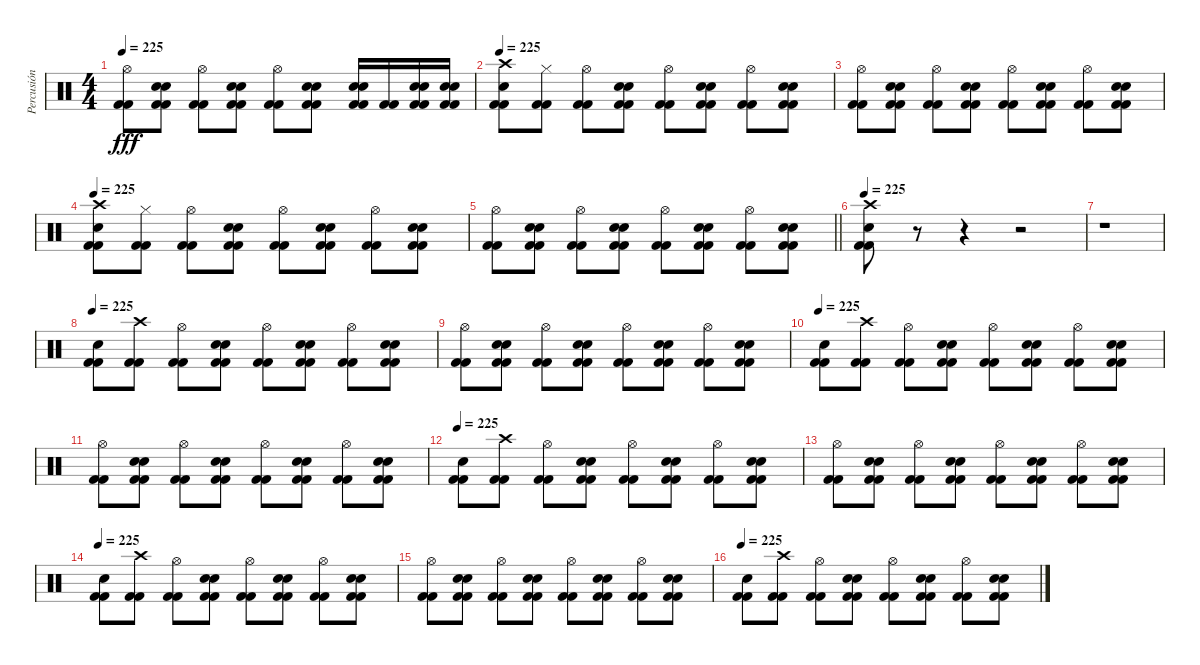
\track ("Percusión" "Percusión") {instrument percussion}
\staff {score}
\articulation defaults
\ts (4 4)
\tempo 225
\clef neutral
\ks c
("Hi-Hat (open)" "Kick (hit) 2" "Kick (hit) 2").8{dy fff} ("Electric Snare (hit)" "Snare (hit) 2" "Kick (hit) 2" "Kick (hit) 2").8 ("Hi-Hat (open)" "Kick (hit) 2" "Kick (hit) 2").8 ("Electric Snare (hit)" "Snare (hit) 2" "Kick (hit) 2" "Kick (hit) 2").8 ("Hi-Hat (open)" "Kick (hit) 2" "Kick (hit) 2").8 ("Electric Snare (hit)" "Snare (hit) 2" "Kick (hit) 2" "Kick (hit) 2").8 ("Electric Snare (hit)" "Snare (hit) 2" "Kick (hit) 2" "Kick (hit) 2").16 ("Kick (hit) 2" "Kick (hit) 2").16 ("Electric Snare (hit)" "Snare (hit) 2" "Kick (hit) 2" "Kick (hit) 2").16 ("Electric Snare (hit)" "Snare (hit) 2" "Kick (hit) 2" "Kick (hit) 2").16 |
\tempo 225
("Crash high (hit)" "Snare (hit) 2" "Kick (hit) 2" "Kick (hit) 2").8 ("Hi-Hat (closed)" "Kick (hit) 2" "Kick (hit) 2").8 ("Hi-Hat (open)" "Kick (hit) 2" "Kick (hit) 2").8 ("Electric Snare (hit)" "Snare (hit) 2" "Kick (hit) 2" "Kick (hit) 2").8 ("Hi-Hat (open)" "Kick (hit) 2" "Kick (hit) 2").8 ("Electric Snare (hit)" "Snare (hit) 2" "Kick (hit) 2" "Kick (hit) 2").8 ("Hi-Hat (open)" "Kick (hit) 2" "Kick (hit) 2").8 ("Electric Snare (hit)" "Snare (hit) 2" "Kick (hit) 2" "Kick (hit) 2").8 |
("Hi-Hat (open)" "Kick (hit) 2" "Kick (hit) 2").8 ("Electric Snare (hit)" "Snare (hit) 2" "Kick (hit) 2" "Kick (hit) 2").8 ("Hi-Hat (open)" "Kick (hit) 2" "Kick (hit) 2").8 ("Electric Snare (hit)" "Snare (hit) 2" "Kick (hit) 2" "Kick (hit) 2").8 ("Hi-Hat (open)" "Kick (hit) 2" "Kick (hit) 2").8 ("Electric Snare (hit)" "Snare (hit) 2" "Kick (hit) 2" "Kick (hit) 2").8 ("Hi-Hat (open)" "Kick (hit) 2" "Kick (hit) 2").8 ("Electric Snare (hit)" "Snare (hit) 2" "Kick (hit) 2" "Kick (hit) 2").8 |
\tempo 225
("Crash high (hit)" "Snare (hit) 2" "Kick (hit) 2" "Kick (hit) 2").8 ("Hi-Hat (closed)" "Kick (hit) 2" "Kick (hit) 2").8 ("Hi-Hat (open)" "Kick (hit) 2" "Kick (hit) 2").8 ("Electric Snare (hit)" "Snare (hit) 2" "Kick (hit) 2" "Kick (hit) 2").8 ("Hi-Hat (open)" "Kick (hit) 2" "Kick (hit) 2").8 ("Electric Snare (hit)" "Snare (hit) 2" "Kick (hit) 2" "Kick (hit) 2").8 ("Hi-Hat (open)" "Kick (hit) 2" "Kick (hit) 2").8 ("Electric Snare (hit)" "Snare (hit) 2" "Kick (hit) 2" "Kick (hit) 2").8 |
\barLineRight lightlight
("Hi-Hat (open)" "Kick (hit) 2" "Kick (hit) 2").8 ("Electric Snare (hit)" "Snare (hit) 2" "Kick (hit) 2" "Kick (hit) 2").8 ("Hi-Hat (open)" "Kick (hit) 2" "Kick (hit) 2").8 ("Electric Snare (hit)" "Snare (hit) 2" "Kick (hit) 2" "Kick (hit) 2").8 ("Hi-Hat (open)" "Kick (hit) 2" "Kick (hit) 2").8 ("Electric Snare (hit)" "Snare (hit) 2" "Kick (hit) 2" "Kick (hit) 2").8 ("Hi-Hat (open)" "Kick (hit) 2" "Kick (hit) 2").8 ("Electric Snare (hit)" "Snare (hit) 2" "Kick (hit) 2" "Kick (hit) 2").8 |
\tempo 225
("Crash high (hit)" "Snare (hit) 2" "Kick (hit) 2" "Kick (hit) 2").8 r.8 r.4 r.2 |
r.1 |
\tempo 225
("Snare (hit) 2" "Kick (hit) 2" "Kick (hit) 2").8 ("Crash high (hit)" "Kick (hit) 2" "Kick (hit) 2").8 ("Hi-Hat (open)" "Kick (hit) 2" "Kick (hit) 2").8 ("Electric Snare (hit)" "Snare (hit) 2" "Kick (hit) 2" "Kick (hit) 2").8 ("Hi-Hat (open)" "Kick (hit) 2" "Kick (hit) 2").8 ("Electric Snare (hit)" "Snare (hit) 2" "Kick (hit) 2" "Kick (hit) 2").8 ("Hi-Hat (open)" "Kick (hit) 2" "Kick (hit) 2").8 ("Electric Snare (hit)" "Snare (hit) 2" "Kick (hit) 2" "Kick (hit) 2").8 |
("Hi-Hat (open)" "Kick (hit) 2" "Kick (hit) 2").8 ("Electric Snare (hit)" "Snare (hit) 2" "Kick (hit) 2" "Kick (hit) 2").8 ("Hi-Hat (open)" "Kick (hit) 2" "Kick (hit) 2").8 ("Electric Snare (hit)" "Snare (hit) 2" "Kick (hit) 2" "Kick (hit) 2").8 ("Hi-Hat (open)" "Kick (hit) 2" "Kick (hit) 2").8 ("Electric Snare (hit)" "Snare (hit) 2" "Kick (hit) 2" "Kick (hit) 2").8 ("Hi-Hat (open)" "Kick (hit) 2" "Kick (hit) 2").8 ("Electric Snare (hit)" "Snare (hit) 2" "Kick (hit) 2" "Kick (hit) 2").8 |
\tempo 225
("Snare (hit) 2" "Kick (hit) 2" "Kick (hit) 2").8 ("Crash high (hit)" "Kick (hit) 2" "Kick (hit) 2").8 ("Hi-Hat (open)" "Kick (hit) 2" "Kick (hit) 2").8 ("Electric Snare (hit)" "Snare (hit) 2" "Kick (hit) 2" "Kick (hit) 2").8 ("Hi-Hat (open)" "Kick (hit) 2" "Kick (hit) 2").8 ("Electric Snare (hit)" "Snare (hit) 2" "Kick (hit) 2" "Kick (hit) 2").8 ("Hi-Hat (open)" "Kick (hit) 2" "Kick (hit) 2").8 ("Electric Snare (hit)" "Snare (hit) 2" "Kick (hit) 2" "Kick (hit) 2").8 |
("Hi-Hat (open)" "Kick (hit) 2" "Kick (hit) 2").8 ("Electric Snare (hit)" "Snare (hit) 2" "Kick (hit) 2" "Kick (hit) 2").8 ("Hi-Hat (open)" "Kick (hit) 2" "Kick (hit) 2").8 ("Electric Snare (hit)" "Snare (hit) 2" "Kick (hit) 2" "Kick (hit) 2").8 ("Hi-Hat (open)" "Kick (hit) 2" "Kick (hit) 2").8 ("Electric Snare (hit)" "Snare (hit) 2" "Kick (hit) 2" "Kick (hit) 2").8 ("Hi-Hat (open)" "Kick (hit) 2" "Kick (hit) 2").8 ("Electric Snare (hit)" "Snare (hit) 2" "Kick (hit) 2" "Kick (hit) 2").8 |
\tempo 225
("Snare (hit) 2" "Kick (hit) 2" "Kick (hit) 2").8 ("Crash high (hit)" "Kick (hit) 2" "Kick (hit) 2").8 ("Hi-Hat (open)" "Kick (hit) 2" "Kick (hit) 2").8 ("Electric Snare (hit)" "Snare (hit) 2" "Kick (hit) 2" "Kick (hit) 2").8 ("Hi-Hat (open)" "Kick (hit) 2" "Kick (hit) 2").8 ("Electric Snare (hit)" "Snare (hit) 2" "Kick (hit) 2" "Kick (hit) 2").8 ("Hi-Hat (open)" "Kick (hit) 2" "Kick (hit) 2").8 ("Electric Snare (hit)" "Snare (hit) 2" "Kick (hit) 2" "Kick (hit) 2").8 |
("Hi-Hat (open)" "Kick (hit) 2" "Kick (hit) 2").8 ("Electric Snare (hit)" "Snare (hit) 2" "Kick (hit) 2" "Kick (hit) 2").8 ("Hi-Hat (open)" "Kick (hit) 2" "Kick (hit) 2").8 ("Electric Snare (hit)" "Snare (hit) 2" "Kick (hit) 2" "Kick (hit) 2").8 ("Hi-Hat (open)" "Kick (hit) 2" "Kick (hit) 2").8 ("Electric Snare (hit)" "Snare (hit) 2" "Kick (hit) 2" "Kick (hit) 2").8 ("Hi-Hat (open)" "Kick (hit) 2" "Kick (hit) 2").8 ("Electric Snare (hit)" "Snare (hit) 2" "Kick (hit) 2" "Kick (hit) 2").8 |
\tempo 225
("Snare (hit) 2" "Kick (hit) 2" "Kick (hit) 2").8 ("Crash high (hit)" "Kick (hit) 2" "Kick (hit) 2").8 ("Hi-Hat (open)" "Kick (hit) 2" "Kick (hit) 2").8 ("Electric Snare (hit)" "Snare (hit) 2" "Kick (hit) 2" "Kick (hit) 2").8 ("Hi-Hat (open)" "Kick (hit) 2" "Kick (hit) 2").8 ("Electric Snare (hit)" "Snare (hit) 2" "Kick (hit) 2" "Kick (hit) 2").8 ("Hi-Hat (open)" "Kick (hit) 2" "Kick (hit) 2").8 ("Electric Snare (hit)" "Snare (hit) 2" "Kick (hit) 2" "Kick (hit) 2").8 |
("Hi-Hat (open)" "Kick (hit) 2" "Kick (hit) 2").8 ("Electric Snare (hit)" "Snare (hit) 2" "Kick (hit) 2" "Kick (hit) 2").8 ("Hi-Hat (open)" "Kick (hit) 2" "Kick (hit) 2").8 ("Electric Snare (hit)" "Snare (hit) 2" "Kick (hit) 2" "Kick (hit) 2").8 ("Hi-Hat (open)" "Kick (hit) 2" "Kick (hit) 2").8 ("Electric Snare (hit)" "Snare (hit) 2" "Kick (hit) 2" "Kick (hit) 2").8 ("Hi-Hat (open)" "Kick (hit) 2" "Kick (hit) 2").8 ("Electric Snare (hit)" "Snare (hit) 2" "Kick (hit) 2" "Kick (hit) 2").8 |
\tempo 225
("Snare (hit) 2" "Kick (hit) 2" "Kick (hit) 2").8 ("Crash high (hit)" "Kick (hit) 2" "Kick (hit) 2").8 ("Hi-Hat (open)" "Kick (hit) 2" "Kick (hit) 2").8 ("Electric Snare (hit)" "Snare (hit) 2" "Kick (hit) 2" "Kick (hit) 2").8 ("Hi-Hat (open)" "Kick (hit) 2" "Kick (hit) 2").8 ("Electric Snare (hit)" "Snare (hit) 2" "Kick (hit) 2" "Kick (hit) 2").8 ("Hi-Hat (open)" "Kick (hit) 2" "Kick (hit) 2").8 ("Electric Snare (hit)" "Snare (hit) 2" "Kick (hit) 2" "Kick (hit) 2").8
